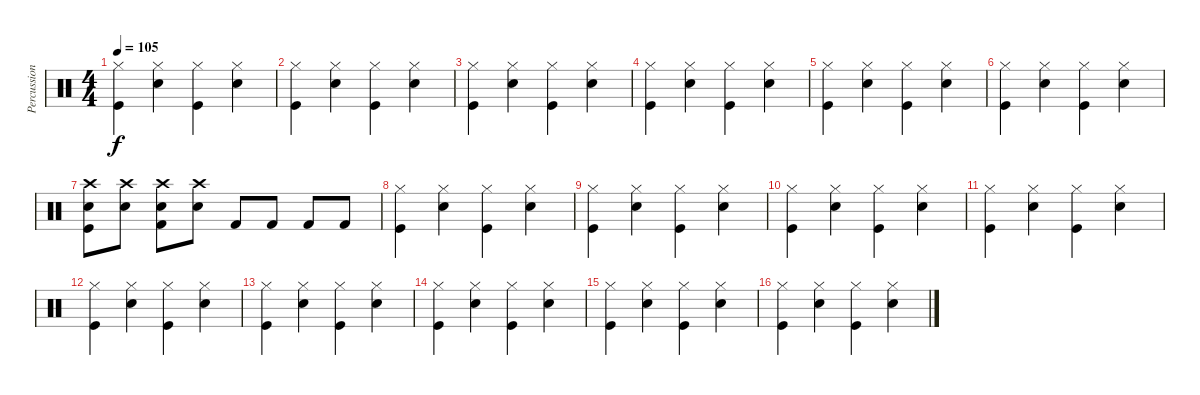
\track ("Percussion" "Percussion") {instrument percussion}
\staff {score}
\articulation defaults
\ts (4 4)
\tempo 105
\clef neutral
\ks c
("Hi-Hat (closed)" "Kick (hit)").4{dy f} ("Hi-Hat (closed)" "Snare (hit) 2").4 ("Hi-Hat (closed)" "Kick (hit)").4 ("Hi-Hat (closed)" "Snare (hit) 2").4 |
("Hi-Hat (closed)" "Kick (hit)").4 ("Hi-Hat (closed)" "Snare (hit) 2").4 ("Hi-Hat (closed)" "Kick (hit)").4 ("Hi-Hat (closed)" "Snare (hit) 2").4 |
("Hi-Hat (closed)" "Kick (hit)").4 ("Hi-Hat (closed)" "Snare (hit) 2").4 ("Hi-Hat (closed)" "Kick (hit)").4 ("Hi-Hat (closed)" "Snare (hit) 2").4 |
("Hi-Hat (closed)" "Kick (hit)").4 ("Hi-Hat (closed)" "Snare (hit) 2").4 ("Hi-Hat (closed)" "Kick (hit)").4 ("Hi-Hat (closed)" "Snare (hit) 2").4 |
("Hi-Hat (closed)" "Kick (hit)").4 ("Hi-Hat (closed)" "Snare (hit) 2").4 ("Hi-Hat (closed)" "Kick (hit)").4 ("Hi-Hat (closed)" "Snare (hit) 2").4 |
("Hi-Hat (closed)" "Kick (hit)").4 ("Hi-Hat (closed)" "Snare (hit) 2").4 ("Hi-Hat (closed)" "Kick (hit)").4 ("Hi-Hat (closed)" "Snare (hit) 2").4 |
("Crash high (hit)" "Snare (hit) 2" "Kick (hit)").8 ("Crash high (hit)" "Snare (hit) 2").8 ("Crash high (hit)" "Snare (hit) 2" "Kick (hit) 2").8 ("Crash high (hit)" "Snare (hit) 2").8 "Kick (hit) 2".8 "Kick (hit) 2".8 "Kick (hit) 2".8 "Kick (hit) 2".8 |
("Hi-Hat (closed)" "Kick (hit)").4 ("Hi-Hat (closed)" "Snare (hit) 2").4 ("Hi-Hat (closed)" "Kick (hit)").4 ("Hi-Hat (closed)" "Snare (hit) 2").4 |
("Hi-Hat (closed)" "Kick (hit)").4 ("Hi-Hat (closed)" "Snare (hit) 2").4 ("Hi-Hat (closed)" "Kick (hit)").4 ("Hi-Hat (closed)" "Snare (hit) 2").4 |
("Hi-Hat (closed)" "Kick (hit)").4 ("Hi-Hat (closed)" "Snare (hit) 2").4 ("Hi-Hat (closed)" "Kick (hit)").4 ("Hi-Hat (closed)" "Snare (hit) 2").4 |
("Hi-Hat (closed)" "Kick (hit)").4 ("Hi-Hat (closed)" "Snare (hit) 2").4 ("Hi-Hat (closed)" "Kick (hit)").4 ("Hi-Hat (closed)" "Snare (hit) 2").4 |
("Hi-Hat (closed)" "Kick (hit)").4 ("Hi-Hat (closed)" "Snare (hit) 2").4 ("Hi-Hat (closed)" "Kick (hit)").4 ("Hi-Hat (closed)" "Snare (hit) 2").4 |
("Hi-Hat (closed)" "Kick (hit)").4 ("Hi-Hat (closed)" "Snare (hit) 2").4 ("Hi-Hat (closed)" "Kick (hit)").4 ("Hi-Hat (closed)" "Snare (hit) 2").4 |
("Hi-Hat (closed)" "Kick (hit)").4 ("Hi-Hat (closed)" "Snare (hit) 2").4 ("Hi-Hat (closed)" "Kick (hit)").4 ("Hi-Hat (closed)" "Snare (hit) 2").4 |
("Hi-Hat (closed)" "Kick (hit)").4 ("Hi-Hat (closed)" "Snare (hit) 2").4 ("Hi-Hat (closed)" "Kick (hit)").4 ("Hi-Hat (closed)" "Snare (hit) 2").4 |
("Hi-Hat (closed)" "Kick (hit)").4 ("Hi-Hat (closed)" "Snare (hit) 2").4 ("Hi-Hat (closed)" "Kick (hit)").4 ("Hi-Hat (closed)" "Snare (hit) 2").4
